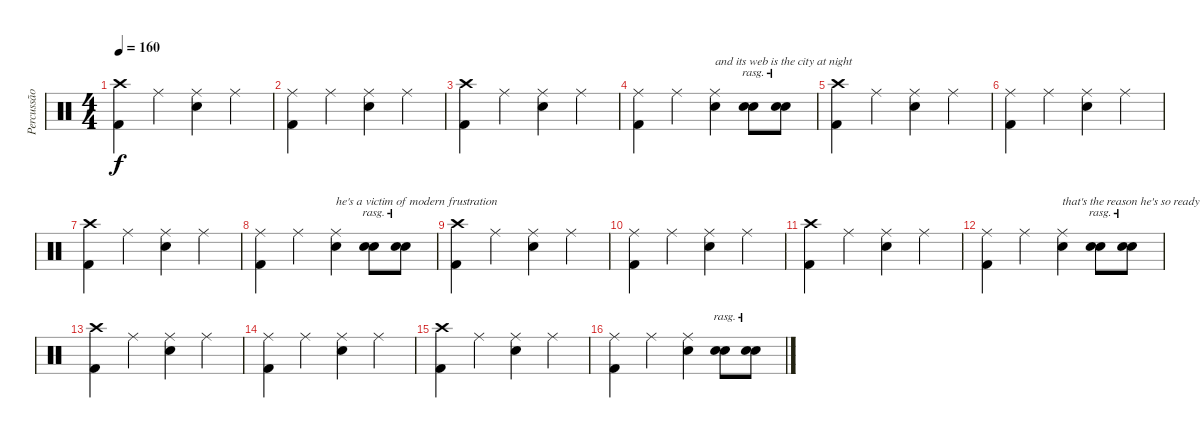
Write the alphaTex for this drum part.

\track ("Percussão" "Percussão") {instrument percussion}
\staff {score}
\articulation defaults
\ts (4 4)
\tempo 160
\clef neutral
\ks c
("Crash high (hit)" "Kick (hit) 2").4{dy f} "Ride (middle)".4 ("Ride (middle)" "Snare (hit) 2").4 "Ride (middle)".4 |
("Ride (middle)" "Kick (hit) 2").4 "Ride (middle)".4 ("Ride (middle)" "Snare (hit) 2").4 "Ride (middle)".4 |
("Crash high (hit)" "Kick (hit) 2").4 "Ride (middle)".4 ("Ride (middle)" "Snare (hit) 2").4 "Ride (middle)".4 |
("Ride (middle)" "Kick (hit) 2").4 "Ride (middle)".4 ("Ride (middle)" "Snare (hit) 2").4{txt "and its web is the city at night"} ("Snare (hit) 2" "Snare (hit) 2").8{bu 240 rasg ii} ("Snare (hit) 2" "Snare (hit) 2").8{bu 240 rasg ii} |
("Crash high (hit)" "Kick (hit) 2").4 "Ride (middle)".4 ("Ride (middle)" "Snare (hit) 2").4 "Ride (middle)".4 |
("Ride (middle)" "Kick (hit) 2").4 "Ride (middle)".4 ("Ride (middle)" "Snare (hit) 2").4 "Ride (middle)".4 |
("Crash high (hit)" "Kick (hit) 2").4 "Ride (middle)".4 ("Ride (middle)" "Snare (hit) 2").4 "Ride (middle)".4 |
("Ride (middle)" "Kick (hit) 2").4 "Ride (middle)".4 ("Ride (middle)" "Snare (hit) 2").4{txt "he's a victim of modern frustration"} ("Snare (hit) 2" "Snare (hit) 2").8{bu 240 rasg ii} ("Snare (hit) 2" "Snare (hit) 2").8{bu 240 rasg ii} |
("Crash high (hit)" "Kick (hit) 2").4 "Ride (middle)".4 ("Ride (middle)" "Snare (hit) 2").4 "Ride (middle)".4 |
("Ride (middle)" "Kick (hit) 2").4 "Ride (middle)".4 ("Ride (middle)" "Snare (hit) 2").4 "Ride (middle)".4 |
("Crash high (hit)" "Kick (hit) 2").4 "Ride (middle)".4 ("Ride (middle)" "Snare (hit) 2").4 "Ride (middle)".4 |
("Ride (middle)" "Kick (hit) 2").4 "Ride (middle)".4 ("Ride (middle)" "Snare (hit) 2").4{txt "that's the reason he's so ready to fight"} ("Snare (hit) 2" "Snare (hit) 2").8{bu 240 rasg ii} ("Snare (hit) 2" "Snare (hit) 2").8{bu 240 rasg ii} |
("Crash high (hit)" "Kick (hit) 2").4 "Ride (middle)".4 ("Ride (middle)" "Snare (hit) 2").4 "Ride (middle)".4 |
("Ride (middle)" "Kick (hit) 2").4 "Ride (middle)".4 ("Ride (middle)" "Snare (hit) 2").4 "Ride (middle)".4 |
("Crash high (hit)" "Kick (hit) 2").4 "Ride (middle)".4 ("Ride (middle)" "Snare (hit) 2").4 "Ride (middle)".4 |
("Ride (middle)" "Kick (hit) 2").4 "Ride (middle)".4 ("Ride (middle)" "Snare (hit) 2").4 ("Snare (hit) 2" "Snare (hit) 2").8{bu 240 rasg ii} ("Snare (hit) 2" "Snare (hit) 2").8{bu 240 rasg ii}
